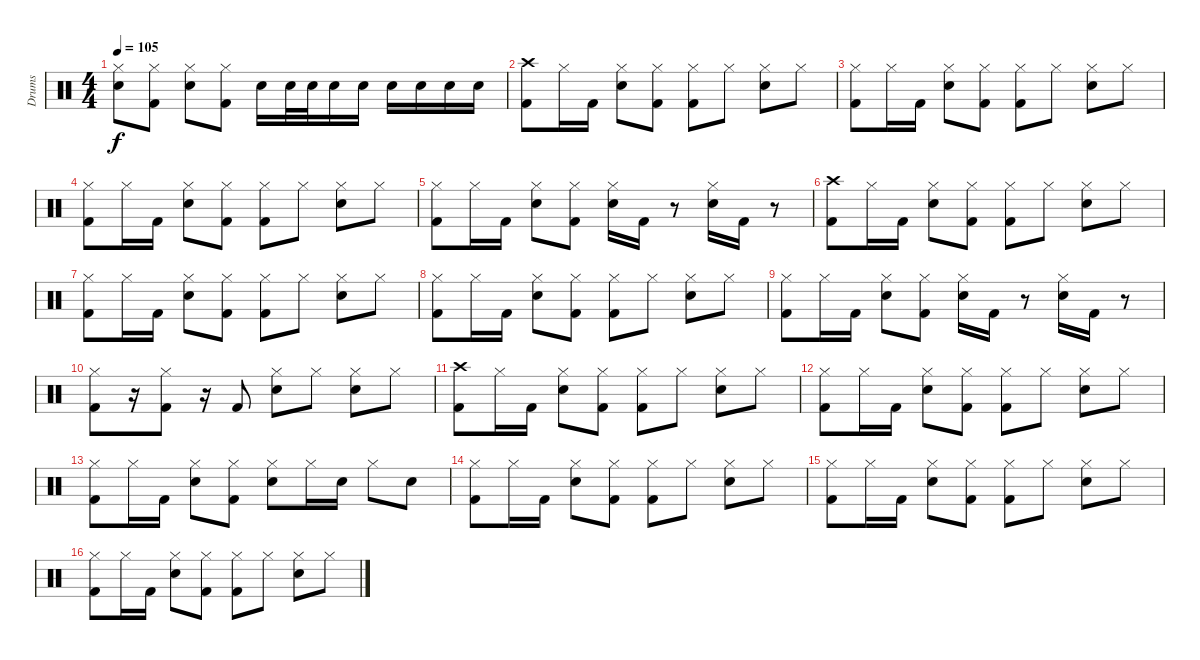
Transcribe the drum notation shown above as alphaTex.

\track ("Drums" "Drums") {instrument percussion}
\staff {score}
\articulation defaults
\ts (4 4)
\tempo 105
\clef neutral
\ks c
("Electric Snare (hit)" "Hi-Hat (closed)").8{dy f} ("Kick (hit) 2" "Hi-Hat (closed)").8 ("Electric Snare (hit)" "Hi-Hat (closed)").8 ("Kick (hit) 2" "Hi-Hat (closed)").8 "Electric Snare (hit)".16 "Electric Snare (hit)".32 "Electric Snare (hit)".32 "Electric Snare (hit)".16 "Electric Snare (hit)".16 "Electric Snare (hit)".16 "Electric Snare (hit)".16 "Electric Snare (hit)".16 "Electric Snare (hit)".16 |
("Crash high (hit)" "Kick (hit) 2").8 "Hi-Hat (closed)".16 "Kick (hit) 2".16 ("Hi-Hat (closed)" "Electric Snare (hit)").8 ("Hi-Hat (closed)" "Kick (hit) 2").8 ("Hi-Hat (closed)" "Kick (hit) 2").8 "Hi-Hat (closed)".8 ("Hi-Hat (closed)" "Electric Snare (hit)").8 "Hi-Hat (closed)".8 |
("Hi-Hat (closed)" "Kick (hit) 2").8 "Hi-Hat (closed)".16 "Kick (hit) 2".16 ("Hi-Hat (closed)" "Electric Snare (hit)").8 ("Hi-Hat (closed)" "Kick (hit) 2").8 ("Hi-Hat (closed)" "Kick (hit) 2").8 "Hi-Hat (closed)".8 ("Hi-Hat (closed)" "Electric Snare (hit)").8 "Hi-Hat (closed)".8 |
("Hi-Hat (closed)" "Kick (hit) 2").8 "Hi-Hat (closed)".16 "Kick (hit) 2".16 ("Hi-Hat (closed)" "Electric Snare (hit)").8 ("Hi-Hat (closed)" "Kick (hit) 2").8 ("Hi-Hat (closed)" "Kick (hit) 2").8 "Hi-Hat (closed)".8 ("Hi-Hat (closed)" "Electric Snare (hit)").8 "Hi-Hat (closed)".8 |
("Hi-Hat (closed)" "Kick (hit) 2").8 "Hi-Hat (closed)".16 "Kick (hit) 2".16 ("Hi-Hat (closed)" "Electric Snare (hit)").8 ("Hi-Hat (closed)" "Kick (hit) 2").8 ("Hi-Hat (closed)" "Electric Snare (hit)").16 "Kick (hit) 2".16 r.8 ("Hi-Hat (closed)" "Snare (hit) 2").16 "Kick (hit) 2".16 r.8 |
("Crash high (hit)" "Kick (hit) 2").8 "Hi-Hat (closed)".16 "Kick (hit) 2".16 ("Hi-Hat (closed)" "Electric Snare (hit)").8 ("Hi-Hat (closed)" "Kick (hit) 2").8 ("Hi-Hat (closed)" "Kick (hit) 2").8 "Hi-Hat (closed)".8 ("Hi-Hat (closed)" "Electric Snare (hit)").8 "Hi-Hat (closed)".8 |
("Hi-Hat (closed)" "Kick (hit) 2").8 "Hi-Hat (closed)".16 "Kick (hit) 2".16 ("Hi-Hat (closed)" "Electric Snare (hit)").8 ("Hi-Hat (closed)" "Kick (hit) 2").8 ("Hi-Hat (closed)" "Kick (hit) 2").8 "Hi-Hat (closed)".8 ("Hi-Hat (closed)" "Electric Snare (hit)").8 "Hi-Hat (closed)".8 |
("Hi-Hat (closed)" "Kick (hit) 2").8 "Hi-Hat (closed)".16 "Kick (hit) 2".16 ("Hi-Hat (closed)" "Electric Snare (hit)").8 ("Hi-Hat (closed)" "Kick (hit) 2").8 ("Hi-Hat (closed)" "Kick (hit) 2").8 "Hi-Hat (closed)".8 ("Hi-Hat (closed)" "Electric Snare (hit)").8 "Hi-Hat (closed)".8 |
("Hi-Hat (closed)" "Kick (hit) 2").8 "Hi-Hat (closed)".16 "Kick (hit) 2".16 ("Hi-Hat (closed)" "Electric Snare (hit)").8 ("Hi-Hat (closed)" "Kick (hit) 2").8 ("Hi-Hat (closed)" "Electric Snare (hit)").16 "Kick (hit) 2".16 r.8 ("Hi-Hat (closed)" "Snare (hit) 2").16 "Kick (hit) 2".16 r.8 |
("Hi-Hat (closed)" "Kick (hit) 2").8 r.16 ("Hi-Hat (closed)" "Kick (hit) 2").8 r.16 "Kick (hit) 2".8 ("Hi-Hat (closed)" "Electric Snare (hit)").8 "Hi-Hat (closed)".8 ("Hi-Hat (closed)" "Electric Snare (hit)").8 "Hi-Hat (closed)".8 |
("Crash high (hit)" "Kick (hit) 2").8 "Hi-Hat (closed)".16 "Kick (hit) 2".16 ("Hi-Hat (closed)" "Electric Snare (hit)").8 ("Hi-Hat (closed)" "Kick (hit) 2").8 ("Hi-Hat (closed)" "Kick (hit) 2").8 "Hi-Hat (closed)".8 ("Hi-Hat (closed)" "Electric Snare (hit)").8 "Hi-Hat (closed)".8 |
("Hi-Hat (closed)" "Kick (hit) 2").8 "Hi-Hat (closed)".16 "Kick (hit) 2".16 ("Hi-Hat (closed)" "Electric Snare (hit)").8 ("Hi-Hat (closed)" "Kick (hit) 2").8 ("Hi-Hat (closed)" "Kick (hit) 2").8 "Hi-Hat (closed)".8 ("Hi-Hat (closed)" "Electric Snare (hit)").8 "Hi-Hat (closed)".8 |
("Hi-Hat (closed)" "Kick (hit) 2").8 "Hi-Hat (closed)".16 "Kick (hit) 2".16 ("Hi-Hat (closed)" "Electric Snare (hit)").8 ("Hi-Hat (closed)" "Kick (hit) 2").8 ("Hi-Hat (closed)" "Electric Snare (hit)").8 "Hi-Hat (closed)".16 "Electric Snare (hit)".16 "Hi-Hat (closed)".8 "Electric Snare (hit)".8 |
("Hi-Hat (closed)" "Kick (hit) 2").8 "Hi-Hat (closed)".16 "Kick (hit) 2".16 ("Hi-Hat (closed)" "Electric Snare (hit)").8 ("Hi-Hat (closed)" "Kick (hit) 2").8 ("Hi-Hat (closed)" "Kick (hit) 2").8 "Hi-Hat (closed)".8 ("Hi-Hat (closed)" "Electric Snare (hit)").8 "Hi-Hat (closed)".8 |
("Hi-Hat (closed)" "Kick (hit) 2").8 "Hi-Hat (closed)".16 "Kick (hit) 2".16 ("Hi-Hat (closed)" "Electric Snare (hit)").8 ("Hi-Hat (closed)" "Kick (hit) 2").8 ("Hi-Hat (closed)" "Kick (hit) 2").8 "Hi-Hat (closed)".8 ("Hi-Hat (closed)" "Electric Snare (hit)").8 "Hi-Hat (closed)".8 |
("Hi-Hat (closed)" "Kick (hit) 2").8 "Hi-Hat (closed)".16 "Kick (hit) 2".16 ("Hi-Hat (closed)" "Electric Snare (hit)").8 ("Hi-Hat (closed)" "Kick (hit) 2").8 ("Hi-Hat (closed)" "Kick (hit) 2").8 "Hi-Hat (closed)".8 ("Hi-Hat (closed)" "Electric Snare (hit)").8 "Hi-Hat (closed)".8
